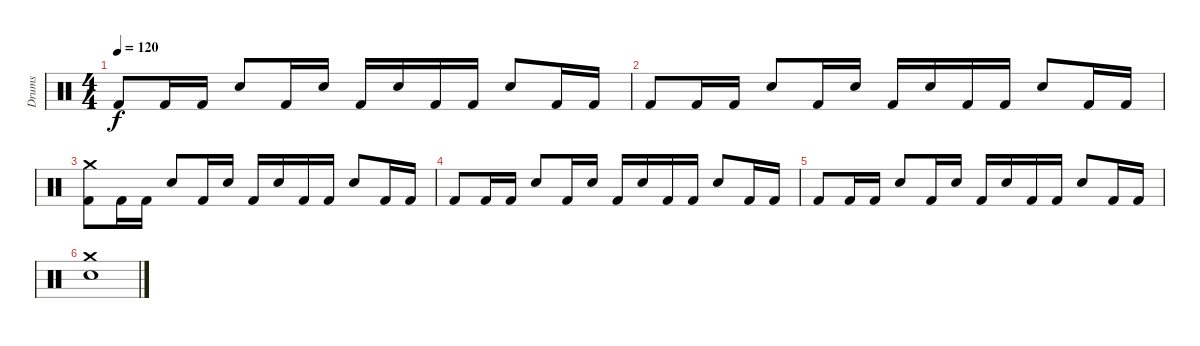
\track ("Drums" "Drums") {instrument percussion}
\staff {score}
\articulation defaults
\ts (4 4)
\tempo 120
\clef neutral
\ks c "Kick (hit) 2".8{dy f} "Kick (hit) 2".16 "Kick (hit) 2".16 "Electric Snare (hit)".8 "Kick (hit) 2".16 "Electric Snare (hit)".16 "Kick (hit) 2".16 "Electric Snare (hit)".16 "Kick (hit) 2".16 "Kick (hit) 2".16 "Electric Snare (hit)".8 "Kick (hit) 2".16 "Kick (hit) 2".16
|
"Kick (hit) 2".8 "Kick (hit) 2".16 "Kick (hit) 2".16 "Electric Snare (hit)".8 "Kick (hit) 2".16 "Electric Snare (hit)".16 "Kick (hit) 2".16 "Electric Snare (hit)".16 "Kick (hit) 2".16 "Kick (hit) 2".16 "Electric Snare (hit)".8 "Kick (hit) 2".16 "Kick (hit) 2".16 |
("Kick (hit) 2" "Crash medium (hit)").8 "Kick (hit) 2".16 "Kick (hit) 2".16 "Electric Snare (hit)".8 "Kick (hit) 2".16 "Electric Snare (hit)".16 "Kick (hit) 2".16 "Electric Snare (hit)".16 "Kick (hit) 2".16 "Kick (hit) 2".16 "Electric Snare (hit)".8 "Kick (hit) 2".16 "Kick (hit) 2".16 |
"Kick (hit) 2".8 "Kick (hit) 2".16 "Kick (hit) 2".16 "Electric Snare (hit)".8 "Kick (hit) 2".16 "Electric Snare (hit)".16 "Kick (hit) 2".16 "Electric Snare (hit)".16 "Kick (hit) 2".16 "Kick (hit) 2".16 "Electric Snare (hit)".8 "Kick (hit) 2".16 "Kick (hit) 2".16 |
"Kick (hit) 2".8 "Kick (hit) 2".16 "Kick (hit) 2".16 "Electric Snare (hit)".8 "Kick (hit) 2".16 "Electric Snare (hit)".16 "Kick (hit) 2".16 "Electric Snare (hit)".16 "Kick (hit) 2".16 "Kick (hit) 2".16 "Electric Snare (hit)".8 "Kick (hit) 2".16 "Kick (hit) 2".16 |
("Electric Snare (hit)" "Crash medium (hit)").1
